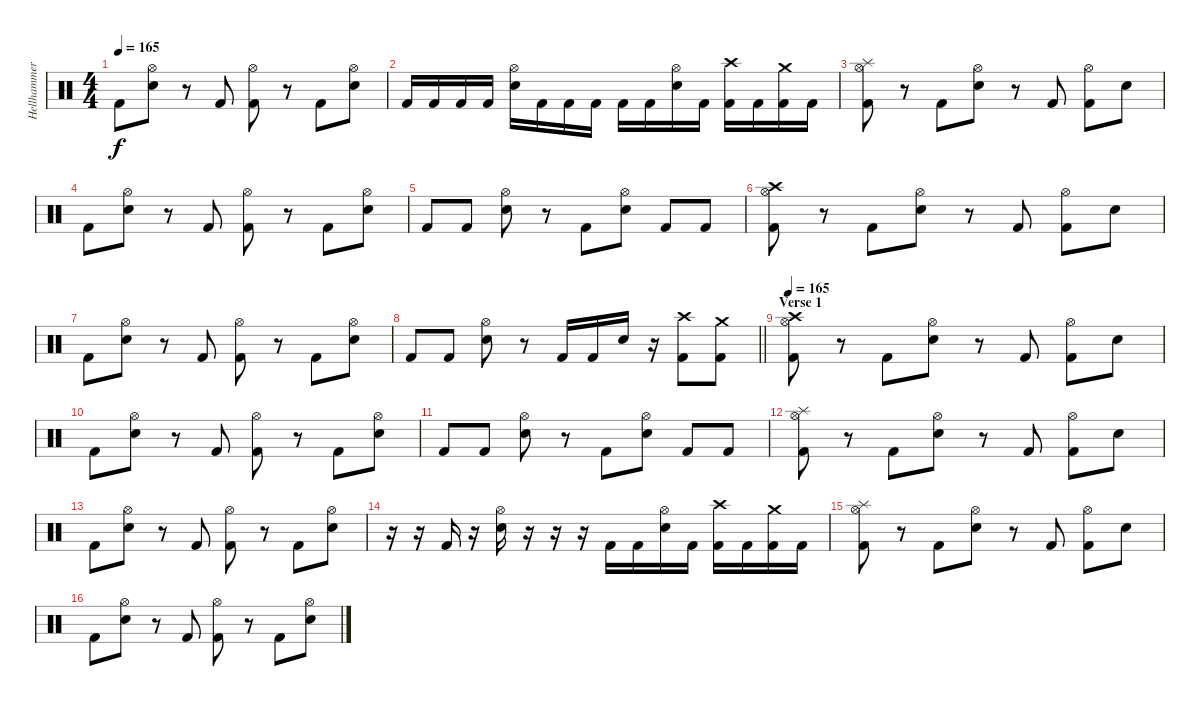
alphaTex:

\track ("Hellhammer" "Hellhammer") {instrument percussion}
\staff {score}
\articulation defaults
\ts (4 4)
\tempo 165
\clef neutral
\ks c "Kick (hit) 2".8{dy f}
("Hi-Hat (open)" "Snare (hit) 2").8 r.8 "Kick (hit) 2".8 ("Hi-Hat (open)" "Kick (hit) 2").8 r.8 "Kick (hit) 2".8 ("Hi-Hat (open)" "Snare (hit) 2").8 |
"Kick (hit) 2".16 "Kick (hit) 2".16 "Kick (hit) 2".16 "Kick (hit) 2".16 ("Hi-Hat (open)" "Snare (hit) 2").16 "Kick (hit) 2".16 "Kick (hit) 2".16 "Kick (hit) 2".16 "Kick (hit) 2".16 "Kick (hit) 2".16 ("Hi-Hat (open)" "Snare (hit) 2").16 "Kick (hit) 2".16 ("Crash high (hit)" "Kick (hit) 2").16 "Kick (hit) 2".16 ("Crash medium (hit)" "Kick (hit) 2").16 "Kick (hit) 2".16 |
("Splash (hit)" "Hi-Hat (open)" "Kick (hit) 2").8 r.8 "Kick (hit) 2".8 ("Hi-Hat (open)" "Snare (hit) 2").8 r.8 "Kick (hit) 2".8 ("Hi-Hat (open)" "Kick (hit) 2").8 "Snare (hit)".8 |
"Kick (hit) 2".8 ("Hi-Hat (open)" "Snare (hit) 2").8 r.8 "Kick (hit) 2".8 ("Hi-Hat (open)" "Kick (hit) 2").8 r.8 "Kick (hit) 2".8 ("Hi-Hat (open)" "Snare (hit) 2").8 |
"Kick (hit) 2".8 "Kick (hit) 2".8 ("Hi-Hat (open)" "Snare (hit) 2").8 r.8 "Kick (hit) 2".8 ("Hi-Hat (open)" "Snare (hit) 2").8 "Kick (hit) 2".8 "Kick (hit) 2".8 |
("Crash high (hit)" "Hi-Hat (open)" "Kick (hit) 2").8 r.8 "Kick (hit) 2".8 ("Hi-Hat (open)" "Snare (hit) 2").8 r.8 "Kick (hit) 2".8 ("Hi-Hat (open)" "Kick (hit) 2").8 "Snare (hit)".8 |
"Kick (hit) 2".8 ("Hi-Hat (open)" "Snare (hit) 2").8 r.8 "Kick (hit) 2".8 ("Hi-Hat (open)" "Kick (hit) 2").8 r.8 "Kick (hit) 2".8 ("Hi-Hat (open)" "Snare (hit) 2").8 |
\barLineRight lightlight "Kick (hit) 2".8 "Kick (hit) 2".8
("Hi-Hat (open)" "Snare (hit) 2").8 r.8 "Kick (hit) 2".16 "Kick (hit) 2".16 "Snare (hit) 2".16 r.16 ("Crash high (hit)" "Kick (hit) 2").8 ("Crash medium (hit)" "Kick (hit) 2").8 |
\section ("" "Verse 1")
\tempo 165
("Crash high (hit)" "Hi-Hat (open)" "Kick (hit) 2").8 r.8 "Kick (hit) 2".8 ("Hi-Hat (open)" "Snare (hit) 2").8 r.8 "Kick (hit) 2".8 ("Hi-Hat (open)" "Kick (hit) 2").8 "Snare (hit)".8 |
"Kick (hit) 2".8 ("Hi-Hat (open)" "Snare (hit) 2").8 r.8 "Kick (hit) 2".8 ("Hi-Hat (open)" "Kick (hit) 2").8 r.8 "Kick (hit) 2".8 ("Hi-Hat (open)" "Snare (hit) 2").8 |
"Kick (hit) 2".8 "Kick (hit) 2".8 ("Hi-Hat (open)" "Snare (hit) 2").8 r.8 "Kick (hit) 2".8 ("Hi-Hat (open)" "Snare (hit) 2").8 "Kick (hit) 2".8 "Kick (hit) 2".8 |
("Splash (hit)" "Hi-Hat (open)" "Kick (hit) 2").8 r.8 "Kick (hit) 2".8 ("Hi-Hat (open)" "Snare (hit) 2").8 r.8 "Kick (hit) 2".8 ("Hi-Hat (open)" "Kick (hit) 2").8 "Snare (hit)".8 |
"Kick (hit) 2".8 ("Hi-Hat (open)" "Snare (hit) 2").8 r.8 "Kick (hit) 2".8 ("Hi-Hat (open)" "Kick (hit) 2").8 r.8 "Kick (hit) 2".8 ("Hi-Hat (open)" "Snare (hit) 2").8 |
r.16 r.16 "Kick (hit) 2".16 r.16 ("Hi-Hat (open)" "Snare (hit) 2").16 r.16 r.16 r.16 "Kick (hit) 2".16 "Kick (hit) 2".16 ("Hi-Hat (open)" "Snare (hit) 2").16 "Kick (hit) 2".16 ("Crash high (hit)" "Kick (hit) 2").16 "Kick (hit) 2".16 ("Crash medium (hit)" "Kick (hit) 2").16 "Kick (hit) 2".16 |
("Splash (hit)" "Hi-Hat (open)" "Kick (hit) 2").8 r.8 "Kick (hit) 2".8 ("Hi-Hat (open)" "Snare (hit) 2").8 r.8 "Kick (hit) 2".8 ("Hi-Hat (open)" "Kick (hit) 2").8 "Snare (hit)".8 |
"Kick (hit) 2".8 ("Hi-Hat (open)" "Snare (hit) 2").8 r.8 "Kick (hit) 2".8 ("Hi-Hat (open)" "Kick (hit) 2").8 r.8 "Kick (hit) 2".8 ("Hi-Hat (open)" "Snare (hit) 2").8
